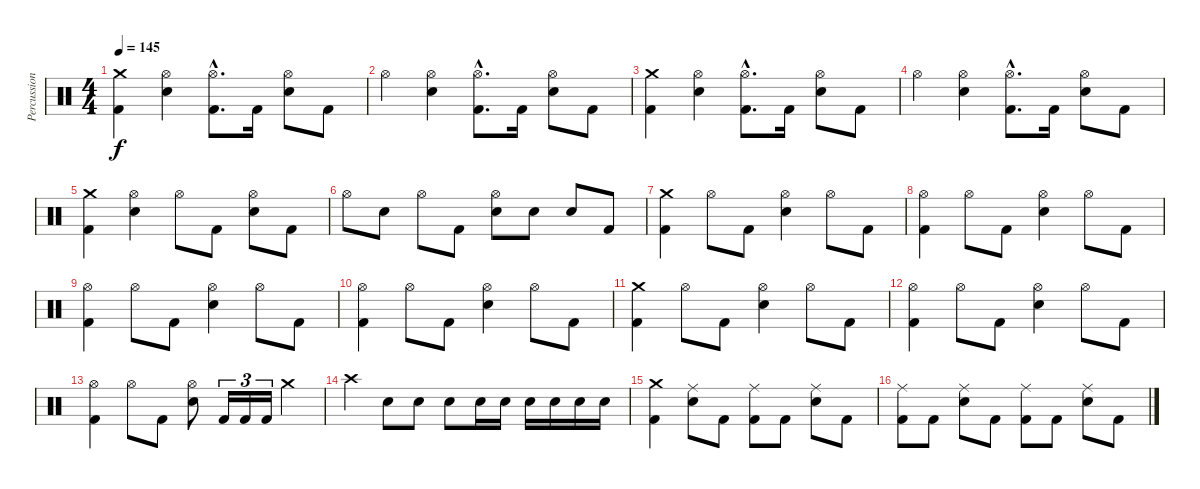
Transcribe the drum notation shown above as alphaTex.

\track ("Percussion" "Percussion") {instrument percussion}
\staff {score}
\articulation defaults
\ts (4 4)
\tempo 145
\clef neutral
\ks c
("Crash medium (hit)" "Kick (hit) 2").4{dy f} ("Hi-Hat (open)" "Snare (hit) 2").4 ("Hi-Hat (open)"{hac} "Kick (hit) 2"{hac}).8{d} "Kick (hit) 2".16 ("Hi-Hat (open)" "Snare (hit) 2").8 "Kick (hit) 2".8 |
"Hi-Hat (open)".4 ("Hi-Hat (open)" "Snare (hit) 2").4 ("Hi-Hat (open)"{hac} "Kick (hit) 2"{hac}).8{d} "Kick (hit) 2".16 ("Hi-Hat (open)" "Snare (hit) 2").8 "Kick (hit) 2".8 |
("Crash medium (hit)" "Kick (hit) 2").4 ("Hi-Hat (open)" "Snare (hit) 2").4 ("Hi-Hat (open)"{hac} "Kick (hit) 2"{hac}).8{d} "Kick (hit) 2".16 ("Hi-Hat (open)" "Snare (hit) 2").8 "Kick (hit) 2".8 |
"Hi-Hat (open)".4 ("Hi-Hat (open)" "Snare (hit) 2").4 ("Hi-Hat (open)"{hac} "Kick (hit) 2"{hac}).8{d} "Kick (hit) 2".16 ("Hi-Hat (open)" "Snare (hit) 2").8 "Kick (hit) 2".8 |
("Crash medium (hit)" "Kick (hit) 2").4 ("Hi-Hat (open)" "Snare (hit) 2").4 "Hi-Hat (open)".8 "Kick (hit) 2".8 ("Hi-Hat (open)" "Snare (hit) 2").8 "Kick (hit) 2".8 |
"Hi-Hat (open)".8 "Snare (hit) 2".8 "Hi-Hat (open)".8 "Kick (hit) 2".8 ("Hi-Hat (open)" "Snare (hit) 2").8 "Snare (hit) 2".8 "Snare (hit) 2".8 "Kick (hit) 2".8 |
("Crash medium (hit)" "Kick (hit) 2").4 "Hi-Hat (open)".8 "Kick (hit) 2".8 ("Hi-Hat (open)" "Snare (hit) 2").4 "Hi-Hat (open)".8 "Kick (hit) 2".8 |
("Hi-Hat (open)" "Kick (hit) 2").4 "Hi-Hat (open)".8 "Kick (hit) 2".8 ("Hi-Hat (open)" "Snare (hit) 2").4 "Hi-Hat (open)".8 "Kick (hit) 2".8 |
("Hi-Hat (open)" "Kick (hit) 2").4 "Hi-Hat (open)".8 "Kick (hit) 2".8 ("Hi-Hat (open)" "Snare (hit) 2").4 "Hi-Hat (open)".8 "Kick (hit) 2".8 |
("Hi-Hat (open)" "Kick (hit) 2").4 "Hi-Hat (open)".8 "Kick (hit) 2".8 ("Hi-Hat (open)" "Snare (hit) 2").4 "Hi-Hat (open)".8 "Kick (hit) 2".8 |
("Crash medium (hit)" "Kick (hit) 2").4 "Hi-Hat (open)".8 "Kick (hit) 2".8 ("Hi-Hat (open)" "Snare (hit) 2").4 "Hi-Hat (open)".8 "Kick (hit) 2".8 |
("Hi-Hat (open)" "Kick (hit) 2").4 "Hi-Hat (open)".8 "Kick (hit) 2".8 ("Hi-Hat (open)" "Snare (hit) 2").4 "Hi-Hat (open)".8 "Kick (hit) 2".8 |
("Hi-Hat (open)" "Kick (hit) 2").4 "Hi-Hat (open)".8 "Kick (hit) 2".8 ("Hi-Hat (open)" "Snare (hit) 2").8 "Kick (hit) 2".16{tu (3 2)} "Kick (hit) 2".16{tu (3 2)} "Kick (hit) 2".16{tu (3 2)} "Crash medium (hit)".4 |
"Crash high (hit)".4 "Snare (hit) 2".8 "Snare (hit) 2".8 "Snare (hit) 2".8 "Snare (hit) 2".16 "Snare (hit) 2".16 "Snare (hit) 2".16 "Snare (hit) 2".16 "Snare (hit) 2".16 "Snare (hit) 2".16 |
("Crash medium (hit)" "Kick (hit) 2").4 ("Ride (middle)" "Snare (hit) 2").8 "Kick (hit) 2".8 ("Ride (middle)" "Kick (hit) 2").8 "Kick (hit) 2".8 ("Ride (middle)" "Snare (hit) 2").8 "Kick (hit) 2".8 |
("Ride (middle)" "Kick (hit) 2").8 "Kick (hit) 2".8 ("Ride (middle)" "Snare (hit) 2").8 "Kick (hit) 2".8 ("Ride (middle)" "Kick (hit) 2").8 "Kick (hit) 2".8 ("Ride (middle)" "Snare (hit) 2").8 "Kick (hit) 2".8
